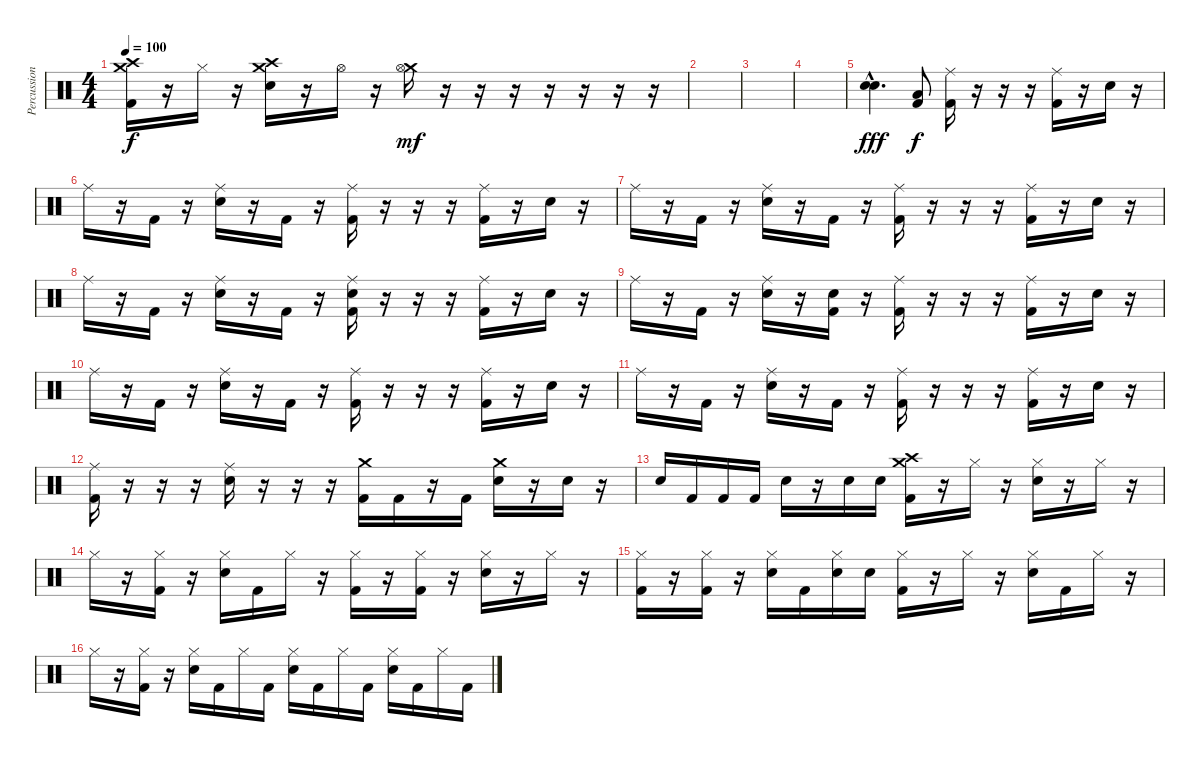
\track ("Percussion" "Percussion") {instrument percussion}
\staff {score}
\articulation defaults
\ts (4 4)
\tempo 100
\clef neutral
\ks c
("Crash medium (hit)" "Crash high (hit)" "Kick (hit) 2").16{dy f} r.16 "Hi-Hat (closed)".16 r.16 ("Crash medium (hit)" "Crash high (hit)" "Snare (hit) 2").16 r.16 "Hi-Hat (open)".16 r.16 ("Crash medium (hit)" "Hi-Hat (open)").16{dy mf} r.16 r.16 r.16 r.16 r.16 r.16 r.16 |
|
|
|
("Snare (hit) 2"{hac} "Snare (hit) 2"{hac}).4{d dy fff} ("Low Tom (hit)" "Kick (hit) 2").8{dy f} ("Ride (middle)" "Kick (hit) 2").16 r.16 r.16 r.16 ("Ride (middle)" "Kick (hit) 2").16 r.16 "Snare (hit) 2".16 r.16 |
"Ride (middle)".16 r.16 "Kick (hit) 2".16 r.16 ("Ride (middle)" "Snare (hit) 2").16 r.16 "Kick (hit) 2".16 r.16 ("Ride (middle)" "Kick (hit) 2").16 r.16 r.16 r.16 ("Ride (middle)" "Kick (hit) 2").16 r.16 "Snare (hit) 2".16 r.16 |
"Ride (middle)".16 r.16 "Kick (hit) 2".16 r.16 ("Ride (middle)" "Snare (hit) 2").16 r.16 "Kick (hit) 2".16 r.16 ("Ride (middle)" "Kick (hit) 2").16 r.16 r.16 r.16 ("Ride (middle)" "Kick (hit) 2").16 r.16 "Snare (hit) 2".16 r.16 |
"Ride (middle)".16 r.16 "Kick (hit) 2".16 r.16 ("Ride (middle)" "Snare (hit) 2").16 r.16 "Kick (hit) 2".16 r.16 ("Ride (middle)" "Snare (hit) 2" "Kick (hit) 2").16 r.16 r.16 r.16 ("Ride (middle)" "Kick (hit) 2").16 r.16 "Snare (hit) 2".16 r.16 |
"Ride (middle)".16 r.16 "Kick (hit) 2".16 r.16 ("Ride (middle)" "Snare (hit) 2").16 r.16 ("Snare (hit) 2" "Kick (hit) 2").16 r.16 ("Ride (middle)" "Kick (hit) 2").16 r.16 r.16 r.16 ("Ride (middle)" "Kick (hit) 2").16 r.16 "Snare (hit) 2".16 r.16 |
"Ride (middle)".16 r.16 "Kick (hit) 2".16 r.16 ("Ride (middle)" "Snare (hit) 2").16 r.16 "Kick (hit) 2".16 r.16 ("Ride (middle)" "Kick (hit) 2").16 r.16 r.16 r.16 ("Ride (middle)" "Kick (hit) 2").16 r.16 "Snare (hit) 2".16 r.16 |
"Ride (middle)".16 r.16 "Kick (hit) 2".16 r.16 ("Ride (middle)" "Snare (hit) 2").16 r.16 "Kick (hit) 2".16 r.16 ("Ride (middle)" "Kick (hit) 2").16 r.16 r.16 r.16 ("Ride (middle)" "Kick (hit) 2").16 r.16 "Snare (hit) 2".16 r.16 |
("Ride (middle)" "Kick (hit) 2").16 r.16 r.16 r.16 ("Ride (middle)" "Snare (hit) 2").16 r.16 r.16 r.16 ("Crash medium (hit)" "Kick (hit) 2").16 "Kick (hit) 2".16 r.16 "Kick (hit) 2".16 ("Crash medium (hit)" "Snare (hit) 2").16 r.16 "Snare (hit) 2".16 r.16 |
"Snare (hit) 2".16 "Kick (hit) 2".16 "Kick (hit) 2".16 "Kick (hit) 2".16 "Snare (hit) 2".16 r.16 "Snare (hit) 2".16 "Snare (hit) 2".16 ("Crash high (hit)" "Crash medium (hit)" "Kick (hit) 2").16 r.16 "Hi-Hat (closed)".16 r.16 ("Hi-Hat (closed)" "Snare (hit) 2").16 r.16 "Hi-Hat (closed)".16 r.16 |
"Hi-Hat (closed)".16 r.16 ("Hi-Hat (closed)" "Kick (hit) 2").16 r.16 ("Hi-Hat (closed)" "Snare (hit) 2").16 "Kick (hit) 2".16 "Hi-Hat (closed)".16 r.16 ("Hi-Hat (closed)" "Kick (hit) 2").16 r.16 ("Hi-Hat (closed)" "Kick (hit) 2").16 r.16 ("Hi-Hat (closed)" "Snare (hit) 2").16 r.16 "Hi-Hat (closed)".16 r.16 |
("Hi-Hat (closed)" "Kick (hit) 2").16 r.16 ("Hi-Hat (closed)" "Kick (hit) 2").16 r.16 ("Hi-Hat (closed)" "Snare (hit) 2").16 "Kick (hit) 2".16 ("Hi-Hat (closed)" "Snare (hit) 2").16 "Snare (hit) 2".16 ("Hi-Hat (closed)" "Kick (hit) 2").16 r.16 "Hi-Hat (closed)".16 r.16 ("Hi-Hat (closed)" "Snare (hit) 2").16 "Kick (hit) 2".16 "Hi-Hat (closed)".16 r.16 |
"Hi-Hat (closed)".16 r.16 ("Hi-Hat (closed)" "Kick (hit) 2").16 r.16 ("Hi-Hat (closed)" "Snare (hit) 2").16 "Kick (hit) 2".16 "Hi-Hat (closed)".16 "Kick (hit) 2".16 ("Hi-Hat (closed)" "Snare (hit) 2").16 "Kick (hit) 2".16 "Hi-Hat (closed)".16 "Kick (hit) 2".16 ("Hi-Hat (closed)" "Snare (hit) 2").16 "Kick (hit) 2".16 "Hi-Hat (closed)".16 "Kick (hit) 2".16
